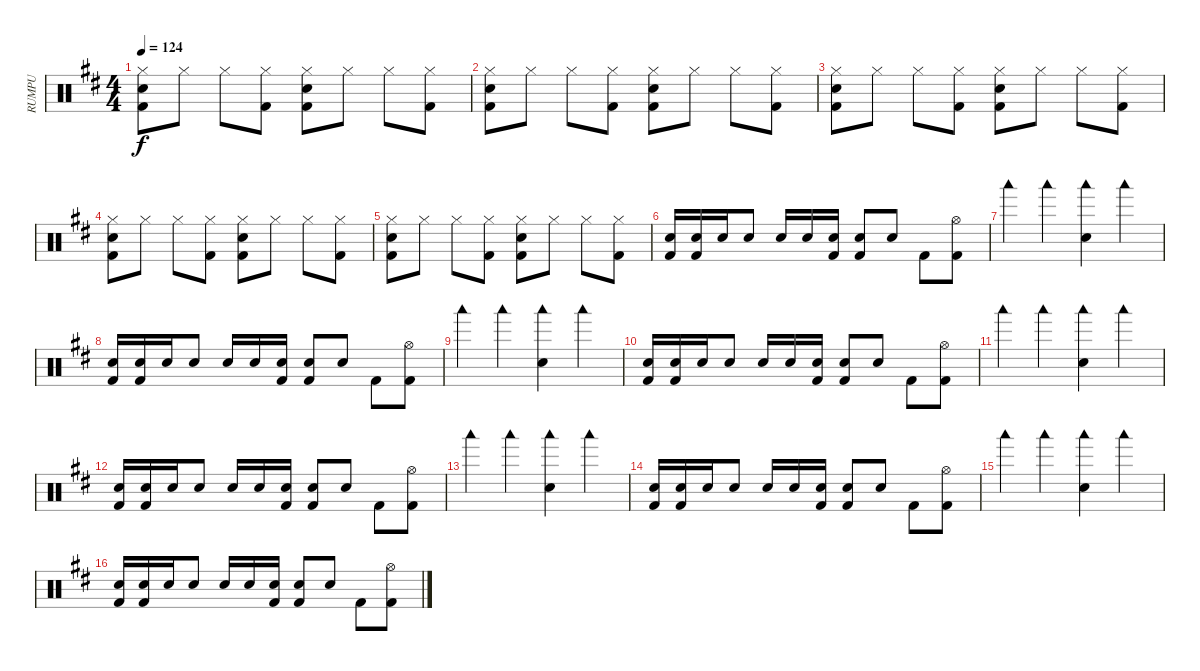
\track ("RUMPU" "RUMPU") {instrument percussion}
\staff {score}
\articulation defaults
\ts (4 4)
\tempo 124
\clef neutral
\ks d
("Hi-Hat (closed)" "Kick (hit) 2" "Electric Snare (hit)").8{dy f} "Hi-Hat (closed)".8 "Hi-Hat (closed)".8 ("Hi-Hat (closed)" "Kick (hit) 2").8 ("Hi-Hat (closed)" "Kick (hit) 2" "Electric Snare (hit)").8 "Hi-Hat (closed)".8 "Hi-Hat (closed)".8 ("Hi-Hat (closed)" "Kick (hit) 2").8 |
("Hi-Hat (closed)" "Kick (hit) 2" "Electric Snare (hit)").8 "Hi-Hat (closed)".8 "Hi-Hat (closed)".8 ("Hi-Hat (closed)" "Kick (hit) 2").8 ("Hi-Hat (closed)" "Kick (hit) 2" "Electric Snare (hit)").8 "Hi-Hat (closed)".8 "Hi-Hat (closed)".8 ("Hi-Hat (closed)" "Kick (hit) 2").8 |
("Hi-Hat (closed)" "Kick (hit) 2" "Electric Snare (hit)").8 "Hi-Hat (closed)".8 "Hi-Hat (closed)".8 ("Hi-Hat (closed)" "Kick (hit) 2").8 ("Hi-Hat (closed)" "Kick (hit) 2" "Electric Snare (hit)").8 "Hi-Hat (closed)".8 "Hi-Hat (closed)".8 ("Hi-Hat (closed)" "Kick (hit) 2").8 |
("Hi-Hat (closed)" "Kick (hit) 2" "Electric Snare (hit)").8 "Hi-Hat (closed)".8 "Hi-Hat (closed)".8 ("Hi-Hat (closed)" "Kick (hit) 2").8 ("Hi-Hat (closed)" "Kick (hit) 2" "Electric Snare (hit)").8 "Hi-Hat (closed)".8 "Hi-Hat (closed)".8 ("Hi-Hat (closed)" "Kick (hit) 2").8 |
("Hi-Hat (closed)" "Kick (hit) 2" "Electric Snare (hit)").8 "Hi-Hat (closed)".8 "Hi-Hat (closed)".8 ("Hi-Hat (closed)" "Kick (hit) 2").8 ("Hi-Hat (closed)" "Kick (hit) 2" "Electric Snare (hit)").8 "Hi-Hat (closed)".8 "Hi-Hat (closed)".8 ("Hi-Hat (closed)" "Kick (hit) 2").8 |
("Electric Snare (hit)" "Kick (hit) 2").16 ("Electric Snare (hit)" "Kick (hit) 2").16 "Electric Snare (hit)".16 "Electric Snare (hit)".8 "Electric Snare (hit)".16 "Electric Snare (hit)".16 ("Electric Snare (hit)" "Kick (hit) 2").16 ("Electric Snare (hit)" "Kick (hit) 2").8 "Electric Snare (hit)".8 "Kick (hit) 2".8 ("Hi-Hat (open)" "Kick (hit) 2").8 |
"Woodblock low (hit)".4 "Woodblock low (hit)".4 ("Woodblock low (hit)" "Electric Snare (hit)").4 "Woodblock low (hit)".4 |
("Electric Snare (hit)" "Kick (hit) 2").16 ("Electric Snare (hit)" "Kick (hit) 2").16 "Electric Snare (hit)".16 "Electric Snare (hit)".8 "Electric Snare (hit)".16 "Electric Snare (hit)".16 ("Electric Snare (hit)" "Kick (hit) 2").16 ("Electric Snare (hit)" "Kick (hit) 2").8 "Electric Snare (hit)".8 "Kick (hit) 2".8 ("Hi-Hat (open)" "Kick (hit) 2").8 |
"Woodblock low (hit)".4 "Woodblock low (hit)".4 ("Woodblock low (hit)" "Electric Snare (hit)").4 "Woodblock low (hit)".4 |
("Electric Snare (hit)" "Kick (hit) 2").16 ("Electric Snare (hit)" "Kick (hit) 2").16 "Electric Snare (hit)".16 "Electric Snare (hit)".8 "Electric Snare (hit)".16 "Electric Snare (hit)".16 ("Electric Snare (hit)" "Kick (hit) 2").16 ("Electric Snare (hit)" "Kick (hit) 2").8 "Electric Snare (hit)".8 "Kick (hit) 2".8 ("Hi-Hat (open)" "Kick (hit) 2").8 |
"Woodblock low (hit)".4 "Woodblock low (hit)".4 ("Woodblock low (hit)" "Electric Snare (hit)").4 "Woodblock low (hit)".4 |
("Electric Snare (hit)" "Kick (hit) 2").16 ("Electric Snare (hit)" "Kick (hit) 2").16 "Electric Snare (hit)".16 "Electric Snare (hit)".8 "Electric Snare (hit)".16 "Electric Snare (hit)".16 ("Electric Snare (hit)" "Kick (hit) 2").16 ("Electric Snare (hit)" "Kick (hit) 2").8 "Electric Snare (hit)".8 "Kick (hit) 2".8 ("Hi-Hat (open)" "Kick (hit) 2").8 |
"Woodblock low (hit)".4 "Woodblock low (hit)".4 ("Woodblock low (hit)" "Electric Snare (hit)").4 "Woodblock low (hit)".4 |
("Electric Snare (hit)" "Kick (hit) 2").16 ("Electric Snare (hit)" "Kick (hit) 2").16 "Electric Snare (hit)".16 "Electric Snare (hit)".8 "Electric Snare (hit)".16 "Electric Snare (hit)".16 ("Electric Snare (hit)" "Kick (hit) 2").16 ("Electric Snare (hit)" "Kick (hit) 2").8 "Electric Snare (hit)".8 "Kick (hit) 2".8 ("Hi-Hat (open)" "Kick (hit) 2").8 |
"Woodblock low (hit)".4 "Woodblock low (hit)".4 ("Woodblock low (hit)" "Electric Snare (hit)").4 "Woodblock low (hit)".4 |
("Electric Snare (hit)" "Kick (hit) 2").16 ("Electric Snare (hit)" "Kick (hit) 2").16 "Electric Snare (hit)".16 "Electric Snare (hit)".8 "Electric Snare (hit)".16 "Electric Snare (hit)".16 ("Electric Snare (hit)" "Kick (hit) 2").16 ("Electric Snare (hit)" "Kick (hit) 2").8 "Electric Snare (hit)".8 "Kick (hit) 2".8 ("Hi-Hat (open)" "Kick (hit) 2").8
